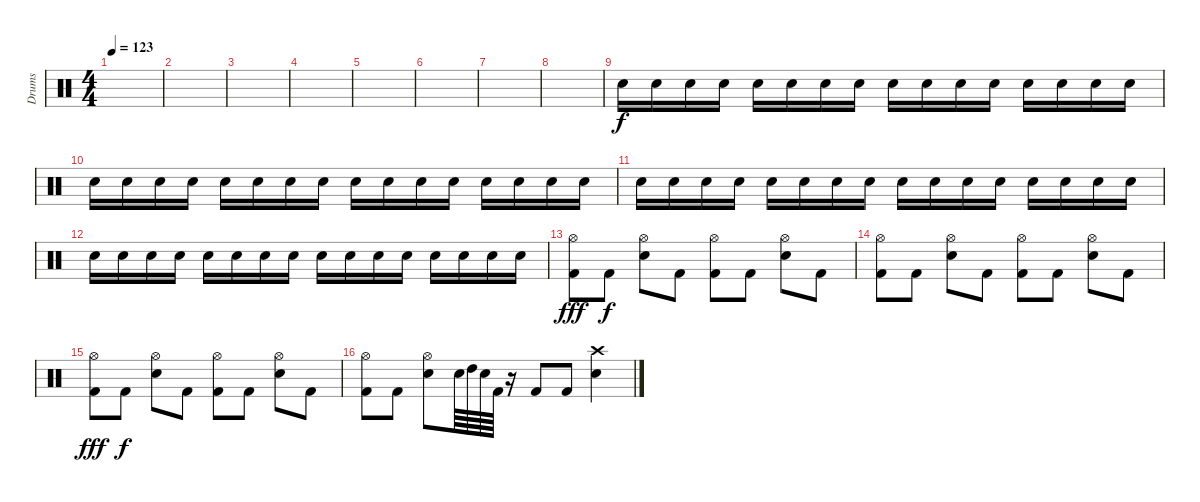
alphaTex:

\track ("Drums" "Drums") {instrument percussion}
\staff {score}
\articulation defaults
\ts (4 4)
\tempo 123
\clef neutral
\ks c
|
|
|
|
|
|
|
|
"Electric Snare (hit)".16 "Electric Snare (hit)".16 "Electric Snare (hit)".16 "Electric Snare (hit)".16 "Electric Snare (hit)".16 "Electric Snare (hit)".16 "Electric Snare (hit)".16 "Electric Snare (hit)".16 "Electric Snare (hit)".16 "Electric Snare (hit)".16 "Electric Snare (hit)".16 "Electric Snare (hit)".16 "Electric Snare (hit)".16 "Electric Snare (hit)".16 "Electric Snare (hit)".16 "Electric Snare (hit)".16 |
"Electric Snare (hit)".16 "Electric Snare (hit)".16 "Electric Snare (hit)".16 "Electric Snare (hit)".16 "Electric Snare (hit)".16 "Electric Snare (hit)".16 "Electric Snare (hit)".16 "Electric Snare (hit)".16 "Electric Snare (hit)".16 "Electric Snare (hit)".16 "Electric Snare (hit)".16 "Electric Snare (hit)".16 "Electric Snare (hit)".16 "Electric Snare (hit)".16 "Electric Snare (hit)".16 "Electric Snare (hit)".16 |
"Electric Snare (hit)".16 "Electric Snare (hit)".16 "Electric Snare (hit)".16 "Electric Snare (hit)".16 "Electric Snare (hit)".16 "Electric Snare (hit)".16 "Electric Snare (hit)".16 "Electric Snare (hit)".16 "Electric Snare (hit)".16 "Electric Snare (hit)".16 "Electric Snare (hit)".16 "Electric Snare (hit)".16 "Electric Snare (hit)".16 "Electric Snare (hit)".16 "Electric Snare (hit)".16 "Electric Snare (hit)".16 |
"Electric Snare (hit)".16 "Electric Snare (hit)".16 "Electric Snare (hit)".16 "Electric Snare (hit)".16 "Electric Snare (hit)".16 "Electric Snare (hit)".16 "Electric Snare (hit)".16 "Electric Snare (hit)".16 "Electric Snare (hit)".16 "Electric Snare (hit)".16 "Electric Snare (hit)".16 "Electric Snare (hit)".16 "Electric Snare (hit)".16 "Electric Snare (hit)".16 "Electric Snare (hit)".16 "Electric Snare (hit)".16 |
("Hi-Hat (open)" "Kick (hit) 2").8{dy fff} "Kick (hit) 2".8{dy f} ("Hi-Hat (open)" "Electric Snare (hit)").8 "Kick (hit) 2".8 ("Hi-Hat (open)" "Kick (hit) 2").8 "Kick (hit) 2".8 ("Hi-Hat (open)" "Electric Snare (hit)").8 "Kick (hit) 2".8 |
("Hi-Hat (open)" "Kick (hit) 2").8 "Kick (hit) 2".8 ("Hi-Hat (open)" "Electric Snare (hit)").8 "Kick (hit) 2".8 ("Hi-Hat (open)" "Kick (hit) 2").8 "Kick (hit) 2".8 ("Hi-Hat (open)" "Electric Snare (hit)").8 "Kick (hit) 2".8 |
("Hi-Hat (open)" "Kick (hit) 2").8{dy fff} "Kick (hit) 2".8{dy f} ("Hi-Hat (open)" "Electric Snare (hit)").8 "Kick (hit) 2".8 ("Hi-Hat (open)" "Kick (hit) 2").8 "Kick (hit) 2".8 ("Hi-Hat (open)" "Electric Snare (hit)").8 "Kick (hit) 2".8 |
("Hi-Hat (open)" "Kick (hit) 2").8 "Kick (hit) 2".8 ("Hi-Hat (open)" "Electric Snare (hit)").8 "Electric Snare (hit)".64 "High Tom (hit)".64 "Electric Snare (hit)".64 "Kick (hit) 2".64 r.16 "Kick (hit) 2".8 "Kick (hit) 2".8 ("Crash high (hit)" "Electric Snare (hit)").4
